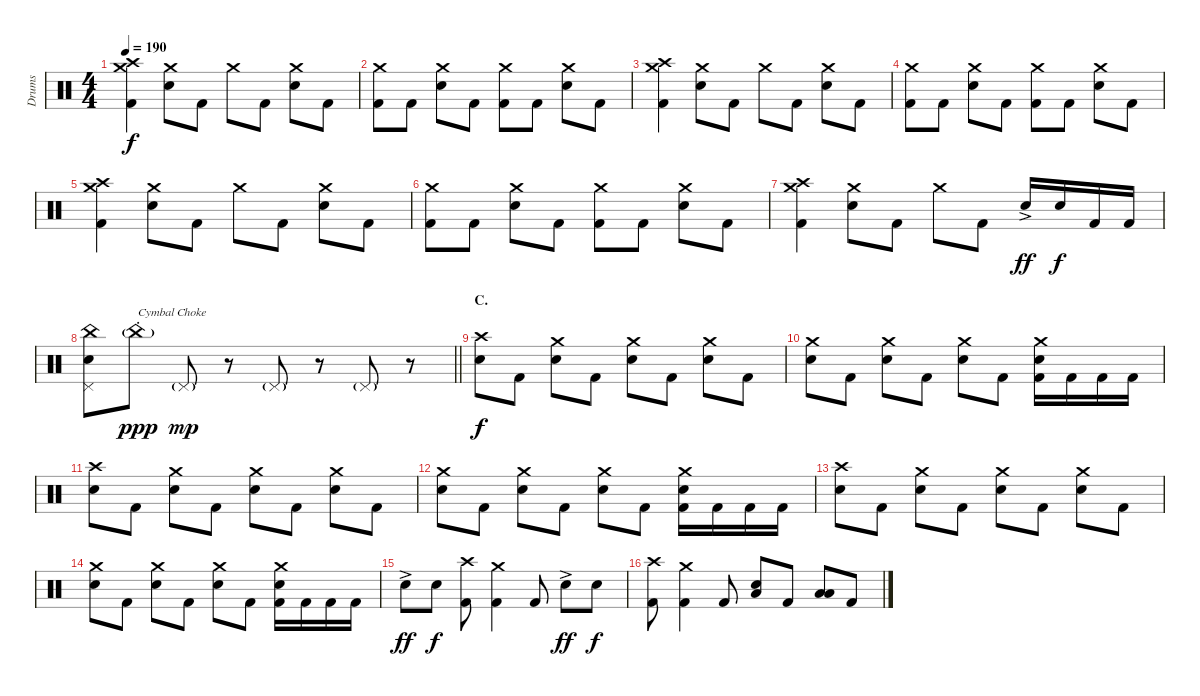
\track ("Drums" "Drums") {instrument percussion}
\staff {score}
\articulation defaults
\ts (4 4)
\tempo 190
\clef neutral
\ks c
("Crash medium (hit)" "Crash high (hit)" "Kick (hit) 2").4{dy f} ("Crash medium (hit)" "Electric Snare (hit)").8 "Kick (hit) 2".8 "Crash medium (hit)".8 "Kick (hit) 2".8 ("Crash medium (hit)" "Electric Snare (hit)").8 "Kick (hit) 2".8 |
("Crash medium (hit)" "Kick (hit) 2").8 "Kick (hit) 2".8 ("Crash medium (hit)" "Electric Snare (hit)").8 "Kick (hit) 2".8 ("Crash medium (hit)" "Kick (hit) 2").8 "Kick (hit) 2".8 ("Crash medium (hit)" "Electric Snare (hit)").8 "Kick (hit) 2".8 |
("Crash medium (hit)" "Crash high (hit)" "Kick (hit) 2").4 ("Crash medium (hit)" "Electric Snare (hit)").8 "Kick (hit) 2".8 "Crash medium (hit)".8 "Kick (hit) 2".8 ("Crash medium (hit)" "Electric Snare (hit)").8 "Kick (hit) 2".8 |
("Crash medium (hit)" "Kick (hit) 2").8 "Kick (hit) 2".8 ("Crash medium (hit)" "Electric Snare (hit)").8 "Kick (hit) 2".8 ("Crash medium (hit)" "Kick (hit) 2").8 "Kick (hit) 2".8 ("Crash medium (hit)" "Electric Snare (hit)").8 "Kick (hit) 2".8 |
("Crash medium (hit)" "Crash high (hit)" "Kick (hit) 2").4 ("Crash medium (hit)" "Electric Snare (hit)").8 "Kick (hit) 2".8 "Crash medium (hit)".8 "Kick (hit) 2".8 ("Crash medium (hit)" "Electric Snare (hit)").8 "Kick (hit) 2".8 |
("Crash medium (hit)" "Kick (hit) 2").8 "Kick (hit) 2".8 ("Crash medium (hit)" "Electric Snare (hit)").8 "Kick (hit) 2".8 ("Crash medium (hit)" "Kick (hit) 2").8 "Kick (hit) 2".8 ("Crash medium (hit)" "Electric Snare (hit)").8 "Kick (hit) 2".8 |
("Crash medium (hit)" "Crash high (hit)" "Kick (hit) 2").4 ("Crash medium (hit)" "Electric Snare (hit)").8 "Kick (hit) 2".8 "Crash medium (hit)".8 "Kick (hit) 2".8 "Electric Snare (hit)"{ac}.16{dy ff} "Electric Snare (hit)".16{dy f} "Kick (hit) 2".16 "Kick (hit) 2".16 |
\barLineRight lightlight
("China (hit)" "Pedal Hi-Hat (hit)" "Electric Snare (hit)").8 "China (hit)"{g st}.8{txt "Cymbal Choke" dy ppp} "Pedal Hi-Hat (hit)"{g}.8{dy mp} r.8 "Pedal Hi-Hat (hit)"{g}.8 r.8 "Pedal Hi-Hat (hit)"{g}.8 r.8 |
\section ("" "C.")
("Crash high (hit)" "Electric Snare (hit)").8{dy f} "Kick (hit) 2".8 ("Crash medium (hit)" "Electric Snare (hit)").8 "Kick (hit) 2".8 ("Crash medium (hit)" "Electric Snare (hit)").8 "Kick (hit) 2".8 ("Crash medium (hit)" "Electric Snare (hit)").8 "Kick (hit) 2".8 |
("Crash medium (hit)" "Electric Snare (hit)").8 "Kick (hit) 2".8 ("Crash medium (hit)" "Electric Snare (hit)").8 "Kick (hit) 2".8 ("Crash medium (hit)" "Electric Snare (hit)").8 "Kick (hit) 2".8 ("Crash medium (hit)" "Electric Snare (hit)" "Kick (hit) 2").16 "Kick (hit) 2".16 "Kick (hit) 2".16 "Kick (hit) 2".16 |
("Crash high (hit)" "Electric Snare (hit)").8 "Kick (hit) 2".8 ("Crash medium (hit)" "Electric Snare (hit)").8 "Kick (hit) 2".8 ("Crash medium (hit)" "Electric Snare (hit)").8 "Kick (hit) 2".8 ("Crash medium (hit)" "Electric Snare (hit)").8 "Kick (hit) 2".8 |
("Crash medium (hit)" "Electric Snare (hit)").8 "Kick (hit) 2".8 ("Crash medium (hit)" "Electric Snare (hit)").8 "Kick (hit) 2".8 ("Crash medium (hit)" "Electric Snare (hit)").8 "Kick (hit) 2".8 ("Crash medium (hit)" "Electric Snare (hit)" "Kick (hit) 2").16 "Kick (hit) 2".16 "Kick (hit) 2".16 "Kick (hit) 2".16 |
("Crash high (hit)" "Electric Snare (hit)").8 "Kick (hit) 2".8 ("Crash medium (hit)" "Electric Snare (hit)").8 "Kick (hit) 2".8 ("Crash medium (hit)" "Electric Snare (hit)").8 "Kick (hit) 2".8 ("Crash medium (hit)" "Electric Snare (hit)").8 "Kick (hit) 2".8 |
("Crash medium (hit)" "Electric Snare (hit)").8 "Kick (hit) 2".8 ("Crash medium (hit)" "Electric Snare (hit)").8 "Kick (hit) 2".8 ("Crash medium (hit)" "Electric Snare (hit)").8 "Kick (hit) 2".8 ("Crash medium (hit)" "Electric Snare (hit)" "Kick (hit) 2").16 "Kick (hit) 2".16 "Kick (hit) 2".16 "Kick (hit) 2".16 |
"Electric Snare (hit)"{ac}.8{dy ff} "Electric Snare (hit)".8{dy f} ("Crash high (hit)" "Kick (hit) 2").8 ("Crash medium (hit)" "Kick (hit) 2").4 "Kick (hit) 2".8 "Electric Snare (hit)"{ac}.8{dy ff} "Electric Snare (hit)".8{dy f} |
("Crash high (hit)" "Kick (hit) 2").8 ("Crash medium (hit)" "Kick (hit) 2").4 "Kick (hit) 2".8 ("Electric Snare (hit)" "Low Floor Tom (hit)").8{bu 120} "Kick (hit) 2".8 ("Low Tom (hit)" "Low Floor Tom (hit)").8{bu 120} "Kick (hit) 2".8
